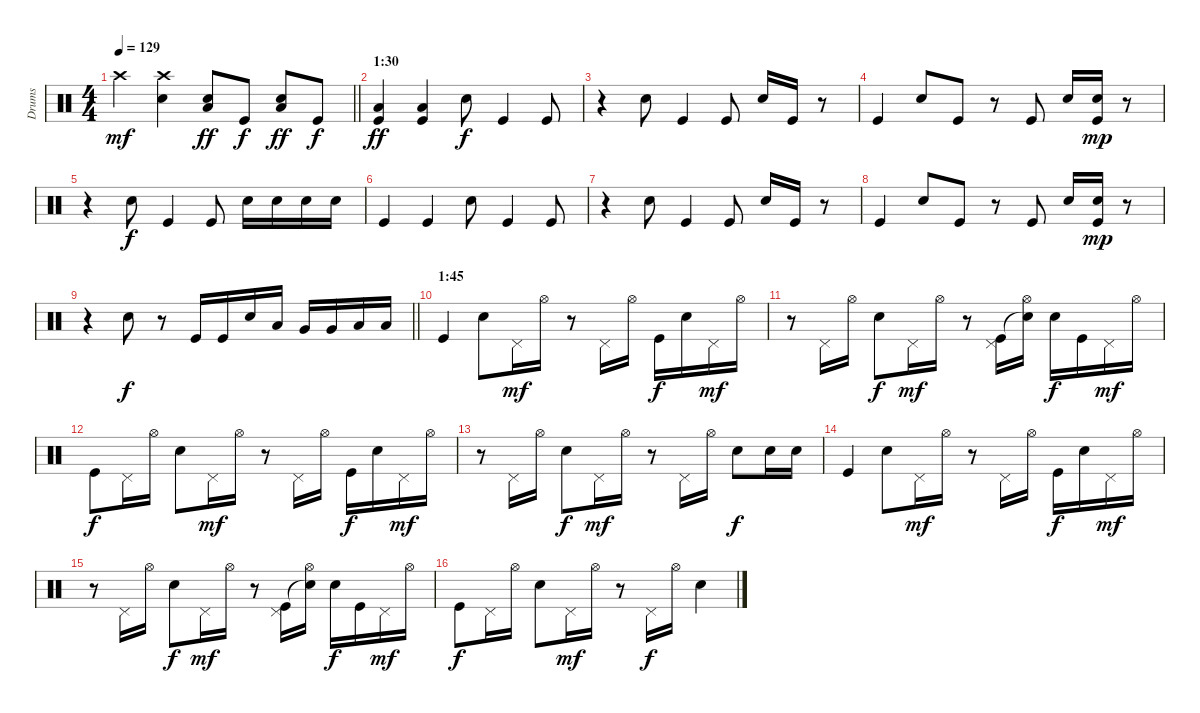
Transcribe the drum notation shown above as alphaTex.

\track ("Drums" "Drums") {instrument percussion}
\staff {score}
\articulation defaults
\ts (4 4)
\tempo 129
\clef neutral
\barLineRight lightlight
\ks c "Crash high (hit)".4{dy mf}
("Crash high (hit)" "Snare (hit) 2").4 ("Low Floor Tom (hit)" "Snare (hit) 2").8{dy ff} "Kick (hit)".8{dy f} ("Low Floor Tom (hit)" "Snare (hit) 2").8{dy ff} "Kick (hit)".8{dy f} |
\section ("" "1:30")
("Low Floor Tom (hit)" "Kick (hit)").4{dy ff} ("Low Floor Tom (hit)" "Kick (hit)").4 "Snare (hit) 2".8{dy f} "Kick (hit)".4 "Kick (hit)".8 |
r.4 "Snare (hit) 2".8 "Kick (hit)".4 "Kick (hit)".8 "Snare (hit) 2".16 "Kick (hit)".16 r.8 |
"Kick (hit)".4 "Snare (hit) 2".8 "Kick (hit)".8 r.8 "Kick (hit)".8 "Snare (hit) 2".16 ("Snare (hit) 2" "Kick (hit)").16{dy mp} r.8 |
r.4 "Snare (hit) 2".8{dy f} "Kick (hit)".4 "Kick (hit)".8 "Snare (hit) 2".16 "Snare (hit) 2".16 "Snare (hit) 2".16 "Snare (hit) 2".16 |
"Kick (hit)".4 "Kick (hit)".4 "Snare (hit) 2".8 "Kick (hit)".4 "Kick (hit)".8 |
r.4 "Snare (hit) 2".8 "Kick (hit)".4 "Kick (hit)".8 "Snare (hit) 2".16 "Kick (hit)".16 r.8 |
"Kick (hit)".4 "Snare (hit) 2".8 "Kick (hit)".8 r.8 "Kick (hit)".8 "Snare (hit) 2".16 ("Snare (hit) 2" "Kick (hit)").16{dy mp} r.8 |
\barLineRight lightlight
r.4 "Snare (hit) 2".8{dy f} r.8 "Kick (hit)".16 "Kick (hit)".16 "Snare (hit) 2".16 "Low Tom (hit)".16 "Very Low Tom (hit)".16 "Very Low Tom (hit)".16 "Low Floor Tom (hit)".16 "Low Floor Tom (hit)".16 |
\section ("" "1:45")
"Kick (hit)".4 "Snare (hit) 2".8 "Pedal Hi-Hat (hit)".16{dy mf} "Hi-Hat (open)".16 r.8 "Pedal Hi-Hat (hit)".16 "Hi-Hat (open)".16 "Kick (hit)".16{dy f} "Snare (hit) 2".16 "Pedal Hi-Hat (hit)".16{dy mf} "Hi-Hat (open)".16 |
r.8 "Pedal Hi-Hat (hit)".16 "Hi-Hat (open)".16 "Snare (hit) 2".8{dy f} "Pedal Hi-Hat (hit)".16{dy mf} "Hi-Hat (open)".16 r.8 ("Pedal Hi-Hat (hit)" "Kick (hit)").16 ("Hi-Hat (open)" "Snare (hit)"{t}).16 "Snare (hit) 2".16{dy f} "Kick (hit)".16 "Pedal Hi-Hat (hit)".16{dy mf} "Hi-Hat (open)".16 |
"Kick (hit)".8{dy f} "Pedal Hi-Hat (hit)".16 "Hi-Hat (open)".16 "Snare (hit) 2".8 "Pedal Hi-Hat (hit)".16{dy mf} "Hi-Hat (open)".16 r.8 "Pedal Hi-Hat (hit)".16 "Hi-Hat (open)".16 "Kick (hit)".16{dy f} "Snare (hit) 2".16 "Pedal Hi-Hat (hit)".16{dy mf} "Hi-Hat (open)".16 |
r.8 "Pedal Hi-Hat (hit)".16 "Hi-Hat (open)".16 "Snare (hit) 2".8{dy f} "Pedal Hi-Hat (hit)".16{dy mf} "Hi-Hat (open)".16 r.8 "Pedal Hi-Hat (hit)".16 "Hi-Hat (open)".16 "Snare (hit) 2".8{dy f} "Snare (hit) 2".16 "Snare (hit) 2".16 |
"Kick (hit)".4 "Snare (hit) 2".8 "Pedal Hi-Hat (hit)".16{dy mf} "Hi-Hat (open)".16 r.8 "Pedal Hi-Hat (hit)".16 "Hi-Hat (open)".16 "Kick (hit)".16{dy f} "Snare (hit) 2".16 "Pedal Hi-Hat (hit)".16{dy mf} "Hi-Hat (open)".16 |
r.8 "Pedal Hi-Hat (hit)".16 "Hi-Hat (open)".16 "Snare (hit) 2".8{dy f} "Pedal Hi-Hat (hit)".16{dy mf} "Hi-Hat (open)".16 r.8 ("Pedal Hi-Hat (hit)" "Kick (hit)").16 ("Hi-Hat (open)" "Snare (hit)"{t}).16 "Snare (hit) 2".16{dy f} "Kick (hit)".16 "Pedal Hi-Hat (hit)".16{dy mf} "Hi-Hat (open)".16 |
"Kick (hit)".8{dy f} "Pedal Hi-Hat (hit)".16 "Hi-Hat (open)".16 "Snare (hit) 2".8 "Pedal Hi-Hat (hit)".16{dy mf} "Hi-Hat (open)".16 r.8 "Pedal Hi-Hat (hit)".16{dy f} "Hi-Hat (open)".16 "Snare (hit) 2".4
